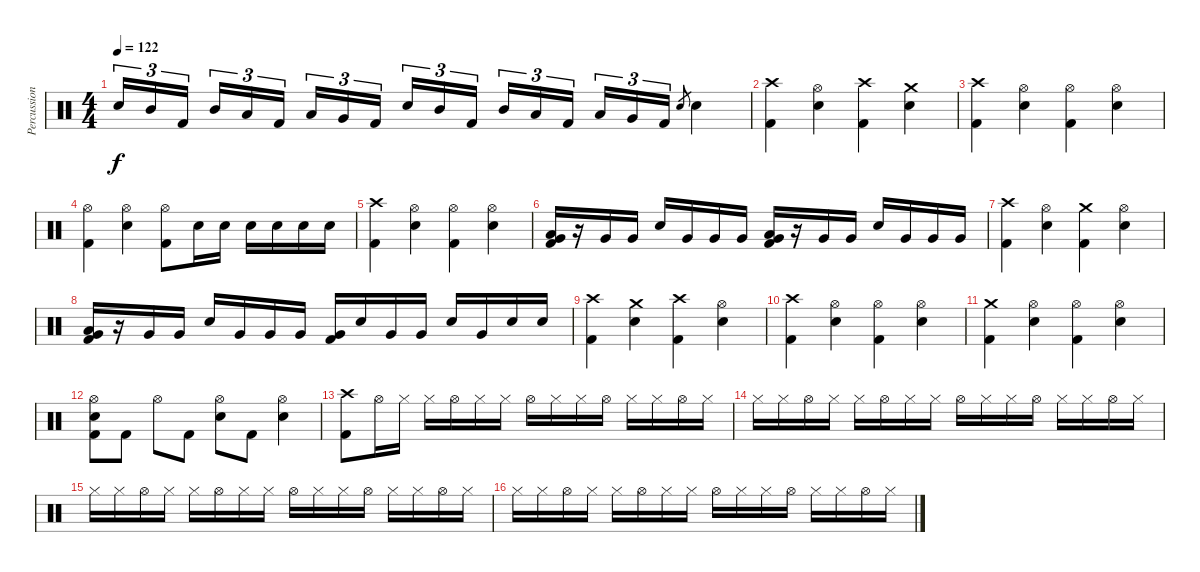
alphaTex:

\track ("Percussion" "Percussion") {instrument percussion}
\staff {score}
\articulation defaults
\ts (4 4)
\tempo 122
\clef neutral
\ks c "Electric Snare (hit)".16{tu (3 2) dy f} "Mid Tom (hit)".16{tu (3 2)} "Kick (hit) 2".16{tu (3 2) beam splitsecondary} "Mid Tom (hit)".16{tu (3 2)} "Low Tom (hit)".16{tu (3 2)} "Kick (hit) 2".16{tu (3 2)} "Low Tom (hit)".16{tu (3 2)} "Very Low Tom (hit)".16{tu (3 2)} "Kick (hit) 2".16{tu (3 2) beam splitsecondary} "Electric Snare (hit)".16{tu (3 2)} "Mid Tom (hit)".16{tu (3 2)} "Kick (hit) 2".16{tu (3 2)} "Mid Tom (hit)".16{tu (3 2)} "Low Tom (hit)".16{tu (3 2)} "Kick (hit) 2".16{tu (3 2) beam splitsecondary} "Low Tom (hit)".16{tu (3 2)} "Very Low Tom (hit)".16{tu (3 2)} "Kick (hit) 2".16{tu (3 2)} "Electric Snare (hit)".8{gr} "Electric Snare (hit)".4
|
("Crash high (hit)" "Kick (hit) 2").4 ("Hi-Hat (open)" "Electric Snare (hit)").4 ("Crash high (hit)" "Kick (hit) 2").4 ("Crash medium (hit)" "Electric Snare (hit)").4 |
("Crash high (hit)" "Kick (hit) 2").4 ("Hi-Hat (open)" "Electric Snare (hit)").4 ("Hi-Hat (open)" "Kick (hit) 2").4 ("Hi-Hat (open)" "Electric Snare (hit)").4 |
("Hi-Hat (open)" "Kick (hit) 2").4 ("Hi-Hat (open)" "Electric Snare (hit)").4 ("Hi-Hat (open)" "Kick (hit) 2").8 "Electric Snare (hit)".16 "Electric Snare (hit)".16 "Electric Snare (hit)".16 "Electric Snare (hit)".16 "Electric Snare (hit)".16 "Electric Snare (hit)".16 |
("Crash high (hit)" "Kick (hit) 2").4 ("Hi-Hat (open)" "Electric Snare (hit)").4 ("Hi-Hat (open)" "Kick (hit) 2").4 ("Hi-Hat (open)" "Electric Snare (hit)").4 |
("Very Low Tom (hit)" "Low Floor Tom (hit)" "Kick (hit) 2").16 r.16 "Very Low Tom (hit)".16 "Very Low Tom (hit)".16 "Electric Snare (hit)".16 "Very Low Tom (hit)".16 "Very Low Tom (hit)".16 "Very Low Tom (hit)".16 ("Low Tom (hit)" "Very Low Tom (hit)" "Kick (hit) 2").16 r.16 "Very Low Tom (hit)".16 "Very Low Tom (hit)".16 "Electric Snare (hit)".16 "Very Low Tom (hit)".16 "Very Low Tom (hit)".16 "Very Low Tom (hit)".16 |
("Crash high (hit)" "Kick (hit) 2").4 ("Hi-Hat (open)" "Electric Snare (hit)").4 ("Crash medium (hit)" "Kick (hit) 2").4 ("Hi-Hat (open)" "Electric Snare (hit)").4 |
("Very Low Tom (hit)" "Low Floor Tom (hit)" "Kick (hit) 2").16 r.16 "Very Low Tom (hit)".16 "Very Low Tom (hit)".16 "Electric Snare (hit)".16 "Very Low Tom (hit)".16 "Very Low Tom (hit)".16 "Very Low Tom (hit)".16 ("Very Low Tom (hit)" "Kick (hit) 2").16 "Electric Snare (hit)".16 "Very Low Tom (hit)".16 "Very Low Tom (hit)".16 "Electric Snare (hit)".16 "Very Low Tom (hit)".16 "Electric Snare (hit)".16 "Electric Snare (hit)".16 |
("Crash high (hit)" "Kick (hit) 2").4 ("Crash medium (hit)" "Electric Snare (hit)").4 ("Crash high (hit)" "Kick (hit) 2").4 ("Hi-Hat (open)" "Electric Snare (hit)").4 |
("Crash high (hit)" "Kick (hit) 2").4 ("Hi-Hat (open)" "Electric Snare (hit)").4 ("Hi-Hat (open)" "Kick (hit) 2").4 ("Hi-Hat (open)" "Electric Snare (hit)").4 |
("Crash medium (hit)" "Kick (hit) 2").4 ("Hi-Hat (open)" "Electric Snare (hit)").4 ("Hi-Hat (open)" "Kick (hit) 2").4 ("Hi-Hat (open)" "Electric Snare (hit)").4 |
("Hi-Hat (open)" "Electric Snare (hit)" "Kick (hit) 2").8 "Kick (hit) 2".8 "Hi-Hat (open)".8 "Kick (hit) 2".8 ("Hi-Hat (open)" "Electric Snare (hit)").8 "Kick (hit) 2".8 ("Hi-Hat (open)" "Electric Snare (hit)").4 |
("Crash high (hit)" "Kick (hit) 2").8 "Hi-Hat (open)".16 "Hi-Hat (closed)".16 "Hi-Hat (closed)".16 "Hi-Hat (open)".16 "Hi-Hat (closed)".16 "Hi-Hat (closed)".16 "Hi-Hat (open)".16 "Hi-Hat (closed)".16 "Hi-Hat (closed)".16 "Hi-Hat (open)".16 "Hi-Hat (closed)".16 "Hi-Hat (closed)".16 "Hi-Hat (open)".16 "Hi-Hat (closed)".16 |
"Hi-Hat (closed)".16 "Hi-Hat (closed)".16 "Hi-Hat (open)".16 "Hi-Hat (closed)".16 "Hi-Hat (closed)".16 "Hi-Hat (open)".16 "Hi-Hat (closed)".16 "Hi-Hat (closed)".16 "Hi-Hat (open)".16 "Hi-Hat (closed)".16 "Hi-Hat (closed)".16 "Hi-Hat (open)".16 "Hi-Hat (closed)".16 "Hi-Hat (closed)".16 "Hi-Hat (open)".16 "Hi-Hat (closed)".16 |
"Hi-Hat (closed)".16 "Hi-Hat (closed)".16 "Hi-Hat (open)".16 "Hi-Hat (closed)".16 "Hi-Hat (closed)".16 "Hi-Hat (open)".16 "Hi-Hat (closed)".16 "Hi-Hat (closed)".16 "Hi-Hat (open)".16 "Hi-Hat (closed)".16 "Hi-Hat (closed)".16 "Hi-Hat (open)".16 "Hi-Hat (closed)".16 "Hi-Hat (closed)".16 "Hi-Hat (open)".16 "Hi-Hat (closed)".16 |
"Hi-Hat (closed)".16 "Hi-Hat (closed)".16 "Hi-Hat (open)".16 "Hi-Hat (closed)".16 "Hi-Hat (closed)".16 "Hi-Hat (open)".16 "Hi-Hat (closed)".16 "Hi-Hat (closed)".16 "Hi-Hat (open)".16 "Hi-Hat (closed)".16 "Hi-Hat (closed)".16 "Hi-Hat (open)".16 "Hi-Hat (closed)".16 "Hi-Hat (closed)".16 "Hi-Hat (open)".16 "Hi-Hat (closed)".16
